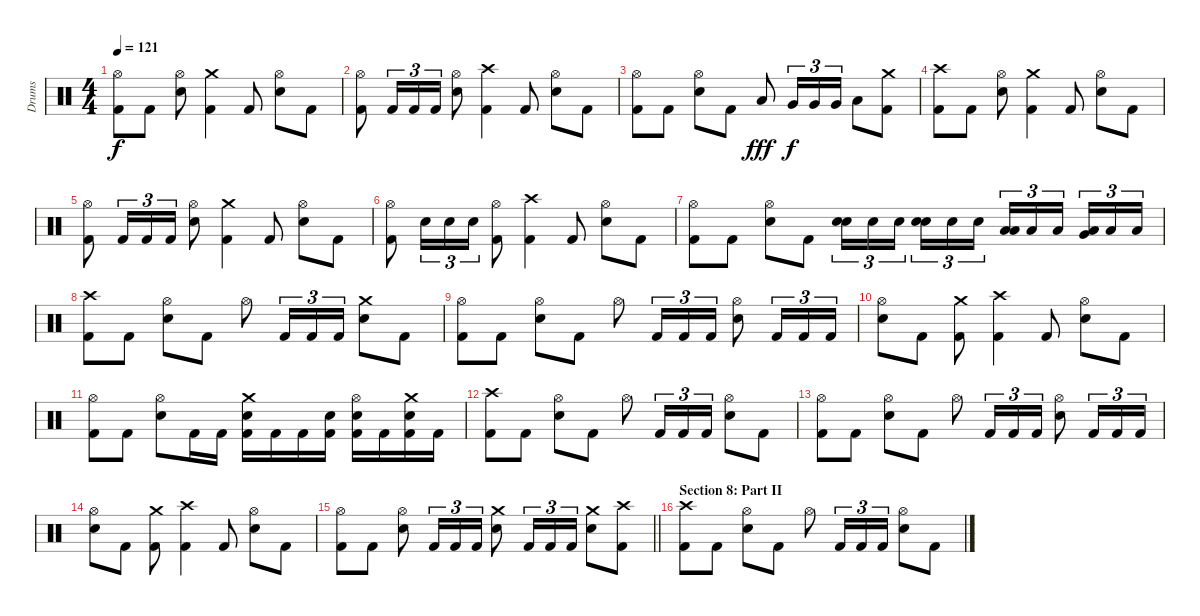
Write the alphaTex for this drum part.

\track ("Drums" "Drums") {instrument percussion}
\staff {score}
\articulation defaults
\ts (4 4)
\tempo 121
\clef neutral
\ks c
("Hi-Hat (open)" "Kick (hit) 2").8{dy f} "Kick (hit) 2".8 ("Hi-Hat (open)" "Electric Snare (hit)").8 ("Crash medium (hit)" "Kick (hit) 2").4 "Kick (hit) 2".8 ("Hi-Hat (open)" "Electric Snare (hit)").8 "Kick (hit) 2".8 |
("Hi-Hat (open)" "Kick (hit) 2").8 "Kick (hit) 2".16{tu (3 2)} "Kick (hit) 2".16{tu (3 2)} "Kick (hit) 2".16{tu (3 2)} ("Hi-Hat (open)" "Electric Snare (hit)").8 ("Crash high (hit)" "Kick (hit) 2").4 "Kick (hit) 2".8 ("Hi-Hat (open)" "Electric Snare (hit)").8 "Kick (hit) 2".8 |
("Hi-Hat (open)" "Kick (hit) 2").8 "Kick (hit) 2".8 ("Hi-Hat (open)" "Electric Snare (hit)").8 "Kick (hit) 2".8 "Low Tom (hit)".8{dy fff} "Very Low Tom (hit)".16{tu (3 2) dy f} "Very Low Tom (hit)".16{tu (3 2)} "Very Low Tom (hit)".16{tu (3 2)} "Low Floor Tom (hit)".8 ("Crash medium (hit)" "Kick (hit) 2").8 |
("Crash high (hit)" "Kick (hit) 2").8 "Kick (hit) 2".8 ("Hi-Hat (open)" "Electric Snare (hit)").8 ("Crash medium (hit)" "Kick (hit) 2").4 "Kick (hit) 2".8 ("Hi-Hat (open)" "Electric Snare (hit)").8 "Kick (hit) 2".8 |
("Hi-Hat (open)" "Kick (hit) 2").8 "Kick (hit) 2".16{tu (3 2)} "Kick (hit) 2".16{tu (3 2)} "Kick (hit) 2".16{tu (3 2)} ("Hi-Hat (open)" "Electric Snare (hit)").8 ("Crash medium (hit)" "Kick (hit) 2").4 "Kick (hit) 2".8 ("Hi-Hat (open)" "Electric Snare (hit)").8 "Kick (hit) 2".8 |
("Hi-Hat (open)" "Kick (hit) 2").8 "Electric Snare (hit)".16{tu (3 2)} "Electric Snare (hit)".16{tu (3 2)} "Electric Snare (hit)".16{tu (3 2)} ("Hi-Hat (open)" "Kick (hit) 2").8 ("Crash high (hit)" "Kick (hit) 2").4 "Kick (hit) 2".8 ("Hi-Hat (open)" "Electric Snare (hit)").8 "Kick (hit) 2".8 |
("Hi-Hat (open)" "Kick (hit) 2").8 "Kick (hit) 2".8 ("Hi-Hat (open)" "Electric Snare (hit)").8 "Kick (hit) 2".8 ("Electric Snare (hit)" "Electric Snare (hit)").16{tu (3 2) bu 60} "Electric Snare (hit)".16{tu (3 2)} "Electric Snare (hit)".16{tu (3 2) beam splitsecondary} ("Electric Snare (hit)" "Electric Snare (hit)").16{tu (3 2) bu 60} "Electric Snare (hit)".16{tu (3 2)} "Electric Snare (hit)".16{tu (3 2)} ("Low Tom (hit)" "Low Floor Tom (hit)").16{tu (3 2) bu 60} "Low Floor Tom (hit)".16{tu (3 2)} "Low Floor Tom (hit)".16{tu (3 2) beam splitsecondary} ("Very Low Tom (hit)" "Low Floor Tom (hit)").16{tu (3 2) bu 60} "Low Floor Tom (hit)".16{tu (3 2)} "Low Floor Tom (hit)".16{tu (3 2)} |
("Crash high (hit)" "Kick (hit) 2").8 "Kick (hit) 2".8 ("Hi-Hat (open)" "Electric Snare (hit)").8 "Kick (hit) 2".8 "Hi-Hat (open)".8 "Kick (hit) 2".16{tu (3 2)} "Kick (hit) 2".16{tu (3 2)} "Kick (hit) 2".16{tu (3 2)} ("Crash medium (hit)" "Electric Snare (hit)").8 "Kick (hit) 2".8 |
("Hi-Hat (open)" "Kick (hit) 2").8 "Kick (hit) 2".8 ("Hi-Hat (open)" "Electric Snare (hit)").8 "Kick (hit) 2".8 "Hi-Hat (open)".8 "Kick (hit) 2".16{tu (3 2)} "Kick (hit) 2".16{tu (3 2)} "Kick (hit) 2".16{tu (3 2)} ("Hi-Hat (open)" "Electric Snare (hit)").8 "Kick (hit) 2".16{tu (3 2)} "Kick (hit) 2".16{tu (3 2)} "Kick (hit) 2".16{tu (3 2)} |
("Hi-Hat (open)" "Electric Snare (hit)").8 "Kick (hit) 2".8 ("Crash medium (hit)" "Kick (hit) 2").8 ("Crash high (hit)" "Kick (hit) 2").4 "Kick (hit) 2".8 ("Hi-Hat (open)" "Electric Snare (hit)").8 "Kick (hit) 2".8 |
("Hi-Hat (open)" "Kick (hit) 2").8 "Kick (hit) 2".8 ("Hi-Hat (open)" "Electric Snare (hit)").8 "Kick (hit) 2".16 "Kick (hit) 2".16 ("Crash medium (hit)" "Electric Snare (hit)" "Kick (hit) 2").16 "Kick (hit) 2".16 "Kick (hit) 2".16 ("Electric Snare (hit)" "Kick (hit) 2").16 ("Hi-Hat (open)" "Electric Snare (hit)" "Kick (hit) 2").16 "Kick (hit) 2".16 ("Crash medium (hit)" "Electric Snare (hit)" "Kick (hit) 2").16 "Kick (hit) 2".16 |
("Crash high (hit)" "Kick (hit) 2").8 "Kick (hit) 2".8 ("Hi-Hat (open)" "Electric Snare (hit)").8 "Kick (hit) 2".8 "Hi-Hat (open)".8 "Kick (hit) 2".16{tu (3 2)} "Kick (hit) 2".16{tu (3 2)} "Kick (hit) 2".16{tu (3 2)} ("Hi-Hat (open)" "Electric Snare (hit)").8 "Kick (hit) 2".8 |
("Hi-Hat (open)" "Kick (hit) 2").8 "Kick (hit) 2".8 ("Hi-Hat (open)" "Electric Snare (hit)").8 "Kick (hit) 2".8 "Hi-Hat (open)".8 "Kick (hit) 2".16{tu (3 2)} "Kick (hit) 2".16{tu (3 2)} "Kick (hit) 2".16{tu (3 2)} ("Hi-Hat (open)" "Electric Snare (hit)").8 "Kick (hit) 2".16{tu (3 2)} "Kick (hit) 2".16{tu (3 2)} "Kick (hit) 2".16{tu (3 2)} |
("Hi-Hat (open)" "Electric Snare (hit)").8 "Kick (hit) 2".8 ("Crash medium (hit)" "Kick (hit) 2").8 ("Crash high (hit)" "Kick (hit) 2").4 "Kick (hit) 2".8 ("Hi-Hat (open)" "Electric Snare (hit)").8 "Kick (hit) 2".8 |
\barLineRight lightlight
("Hi-Hat (open)" "Kick (hit) 2").8 "Kick (hit) 2".8 ("Hi-Hat (open)" "Electric Snare (hit)").8 "Kick (hit) 2".16{tu (3 2)} "Kick (hit) 2".16{tu (3 2)} "Kick (hit) 2".16{tu (3 2)} ("Crash medium (hit)" "Electric Snare (hit)").8 "Kick (hit) 2".16{tu (3 2)} "Kick (hit) 2".16{tu (3 2)} "Kick (hit) 2".16{tu (3 2)} ("Crash medium (hit)" "Electric Snare (hit)").8 ("Crash high (hit)" "Kick (hit) 2").8 |
\section ("" "Section 8: Part II")
("Crash high (hit)" "Kick (hit) 2").8 "Kick (hit) 2".8 ("Hi-Hat (open)" "Electric Snare (hit)").8 "Kick (hit) 2".8 "Hi-Hat (open)".8 "Kick (hit) 2".16{tu (3 2)} "Kick (hit) 2".16{tu (3 2)} "Kick (hit) 2".16{tu (3 2)} ("Hi-Hat (open)" "Electric Snare (hit)").8 "Kick (hit) 2".8
